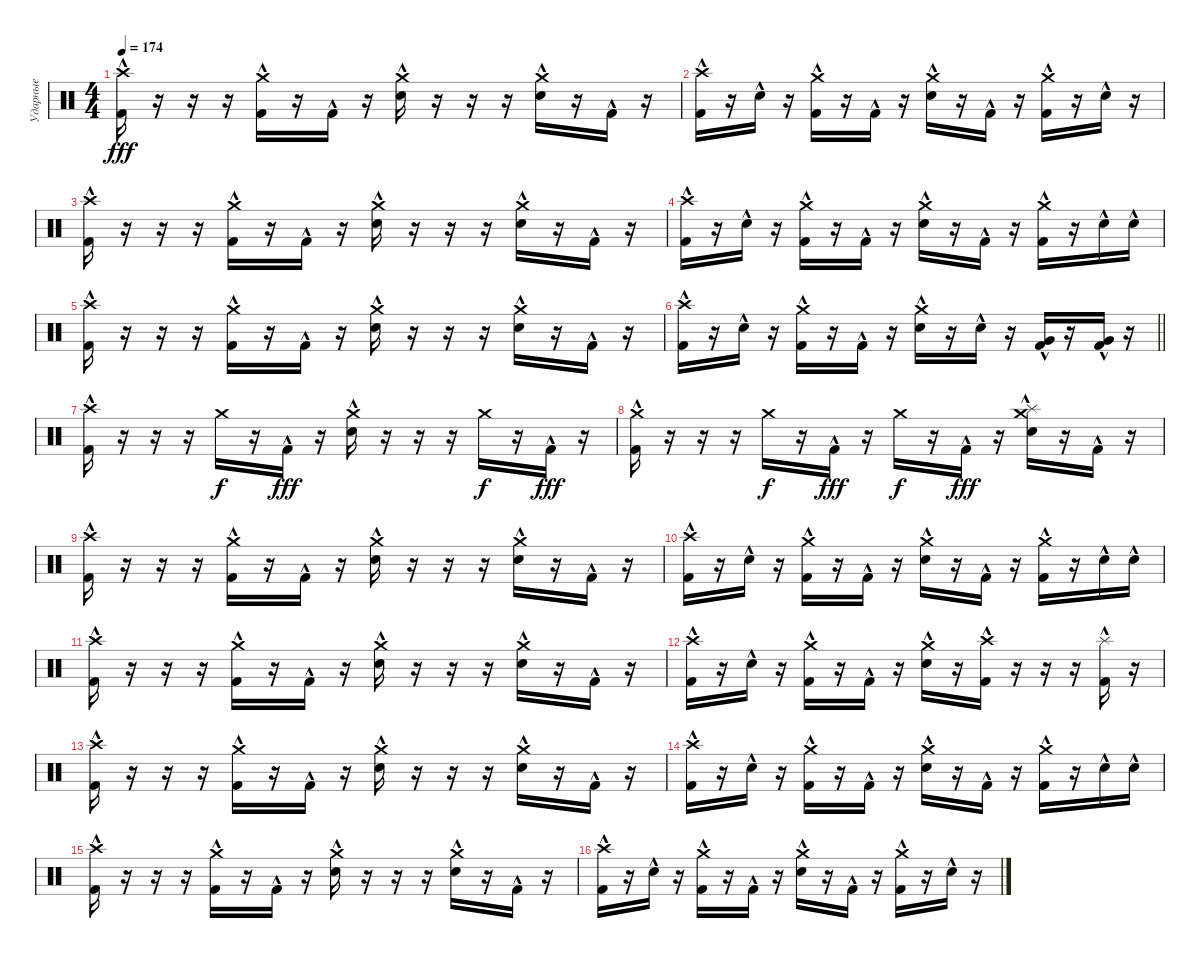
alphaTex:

\track ("Ударные" "Ударные") {instrument percussion}
\staff {score}
\articulation defaults
\ts (4 4)
\tempo 174
\clef neutral
\ks c
("Crash high (hit)" "Kick (hit) 2"{hac}).16{dy fff} r.16 r.16 r.16 ("Crash medium (hit)" "Kick (hit) 2"{hac}).16 r.16 "Kick (hit) 2"{hac}.16 r.16 ("Crash medium (hit)" "Snare (hit) 2"{hac}).16 r.16 r.16 r.16 ("Crash medium (hit)" "Snare (hit) 2"{hac}).16 r.16 "Kick (hit) 2"{hac}.16 r.16 |
("Crash high (hit)" "Kick (hit) 2"{hac}).16 r.16 "Snare (hit) 2"{hac}.16 r.16 ("Crash medium (hit)" "Kick (hit) 2"{hac}).16 r.16 "Kick (hit) 2"{hac}.16 r.16 ("Crash medium (hit)" "Snare (hit) 2"{hac}).16 r.16 "Kick (hit) 2"{hac}.16 r.16 ("Crash medium (hit)" "Kick (hit) 2"{hac}).16 r.16 "Snare (hit) 2"{hac}.16 r.16 |
("Crash high (hit)" "Kick (hit) 2"{hac}).16 r.16 r.16 r.16 ("Crash medium (hit)" "Kick (hit) 2"{hac}).16 r.16 "Kick (hit) 2"{hac}.16 r.16 ("Crash medium (hit)" "Snare (hit) 2"{hac}).16 r.16 r.16 r.16 ("Crash medium (hit)" "Snare (hit) 2"{hac}).16 r.16 "Kick (hit) 2"{hac}.16 r.16 |
("Crash high (hit)" "Kick (hit) 2"{hac}).16 r.16 "Snare (hit) 2"{hac}.16 r.16 ("Crash medium (hit)" "Kick (hit) 2"{hac}).16 r.16 "Kick (hit) 2"{hac}.16 r.16 ("Crash medium (hit)" "Snare (hit) 2"{hac}).16 r.16 "Kick (hit) 2"{hac}.16 r.16 ("Crash medium (hit)" "Kick (hit) 2"{hac}).16 r.16 "Snare (hit) 2"{hac}.16 "Snare (hit) 2"{hac}.16 |
("Crash high (hit)" "Kick (hit) 2"{hac}).16 r.16 r.16 r.16 ("Crash medium (hit)" "Kick (hit) 2"{hac}).16 r.16 "Kick (hit) 2"{hac}.16 r.16 ("Crash medium (hit)" "Snare (hit) 2"{hac}).16 r.16 r.16 r.16 ("Crash medium (hit)" "Snare (hit) 2"{hac}).16 r.16 "Kick (hit) 2"{hac}.16 r.16 |
\barLineRight lightlight
("Crash high (hit)" "Kick (hit) 2"{hac}).16 r.16 "Snare (hit) 2"{hac}.16 r.16 ("Crash medium (hit)" "Kick (hit) 2"{hac}).16 r.16 "Kick (hit) 2"{hac}.16 r.16 ("Crash medium (hit)" "Snare (hit) 2"{hac}).16 r.16 "Snare (hit) 2"{hac}.16 r.16 ("Very Low Tom (hit)"{hac} "Kick (hit) 2").16 r.16 ("Very Low Tom (hit)"{hac} "Kick (hit) 2").16 r.16 |
("Crash high (hit)" "Kick (hit) 2"{hac}).16 r.16 r.16 r.16 "Crash medium (hit)".16{dy f} r.16 "Kick (hit) 2"{hac}.16{dy fff} r.16 ("Crash medium (hit)" "Snare (hit) 2"{hac}).16 r.16 r.16 r.16 "Crash medium (hit)".16{dy f} r.16 "Kick (hit) 2"{hac}.16{dy fff} r.16 |
("Crash medium (hit)" "Kick (hit) 2"{hac}).16 r.16 r.16 r.16 "Crash medium (hit)".16{dy f} r.16 "Kick (hit) 2"{hac}.16{dy fff} r.16 "Crash medium (hit)".16{dy f} r.16 "Kick (hit) 2"{hac}.16{dy fff} r.16 ("Crash medium (hit)" "Snare (hit) 2"{hac} "Splash (hit)").16 r.16 "Kick (hit) 2"{hac}.16 r.16 |
("Crash high (hit)" "Kick (hit) 2"{hac}).16 r.16 r.16 r.16 ("Crash medium (hit)" "Kick (hit) 2"{hac}).16 r.16 "Kick (hit) 2"{hac}.16 r.16 ("Crash medium (hit)" "Snare (hit) 2"{hac}).16 r.16 r.16 r.16 ("Crash medium (hit)" "Snare (hit) 2"{hac}).16 r.16 "Kick (hit) 2"{hac}.16 r.16 |
("Crash high (hit)" "Kick (hit) 2"{hac}).16 r.16 "Snare (hit) 2"{hac}.16 r.16 ("Crash medium (hit)" "Kick (hit) 2"{hac}).16 r.16 "Kick (hit) 2"{hac}.16 r.16 ("Crash medium (hit)" "Snare (hit) 2"{hac}).16 r.16 "Kick (hit) 2"{hac}.16 r.16 ("Crash medium (hit)" "Kick (hit) 2"{hac}).16 r.16 "Snare (hit) 2"{hac}.16 "Snare (hit) 2"{hac}.16 |
("Crash high (hit)" "Kick (hit) 2"{hac}).16 r.16 r.16 r.16 ("Crash medium (hit)" "Kick (hit) 2"{hac}).16 r.16 "Kick (hit) 2"{hac}.16 r.16 ("Crash medium (hit)" "Snare (hit) 2"{hac}).16 r.16 r.16 r.16 ("Crash medium (hit)" "Snare (hit) 2"{hac}).16 r.16 "Kick (hit) 2"{hac}.16 r.16 |
("Crash high (hit)" "Kick (hit) 2"{hac}).16 r.16 "Snare (hit) 2"{hac}.16 r.16 ("Crash medium (hit)" "Kick (hit) 2"{hac}).16 r.16 "Kick (hit) 2"{hac}.16 r.16 ("Crash medium (hit)" "Snare (hit) 2"{hac}).16 r.16 ("Kick (hit) 2"{hac} "Crash high (hit)").16 r.16 r.16 r.16 ("Kick (hit) 2"{hac} "Splash (hit)").16 r.16 |
("Crash high (hit)" "Kick (hit) 2"{hac}).16 r.16 r.16 r.16 ("Crash medium (hit)" "Kick (hit) 2"{hac}).16 r.16 "Kick (hit) 2"{hac}.16 r.16 ("Crash medium (hit)" "Snare (hit) 2"{hac}).16 r.16 r.16 r.16 ("Crash medium (hit)" "Snare (hit) 2"{hac}).16 r.16 "Kick (hit) 2"{hac}.16 r.16 |
("Crash high (hit)" "Kick (hit) 2"{hac}).16 r.16 "Snare (hit) 2"{hac}.16 r.16 ("Crash medium (hit)" "Kick (hit) 2"{hac}).16 r.16 "Kick (hit) 2"{hac}.16 r.16 ("Crash medium (hit)" "Snare (hit) 2"{hac}).16 r.16 "Kick (hit) 2"{hac}.16 r.16 ("Crash medium (hit)" "Kick (hit) 2"{hac}).16 r.16 "Snare (hit) 2"{hac}.16 "Snare (hit) 2"{hac}.16 |
("Crash high (hit)" "Kick (hit) 2"{hac}).16 r.16 r.16 r.16 ("Crash medium (hit)" "Kick (hit) 2"{hac}).16 r.16 "Kick (hit) 2"{hac}.16 r.16 ("Crash medium (hit)" "Snare (hit) 2"{hac}).16 r.16 r.16 r.16 ("Crash medium (hit)" "Snare (hit) 2"{hac}).16 r.16 "Kick (hit) 2"{hac}.16 r.16 |
("Crash high (hit)" "Kick (hit) 2"{hac}).16 r.16 "Snare (hit) 2"{hac}.16 r.16 ("Crash medium (hit)" "Kick (hit) 2"{hac}).16 r.16 "Kick (hit) 2"{hac}.16 r.16 ("Crash medium (hit)" "Snare (hit) 2"{hac}).16 r.16 "Kick (hit) 2"{hac}.16 r.16 ("Crash medium (hit)" "Kick (hit) 2"{hac}).16 r.16 "Snare (hit) 2"{hac}.16 r.16
